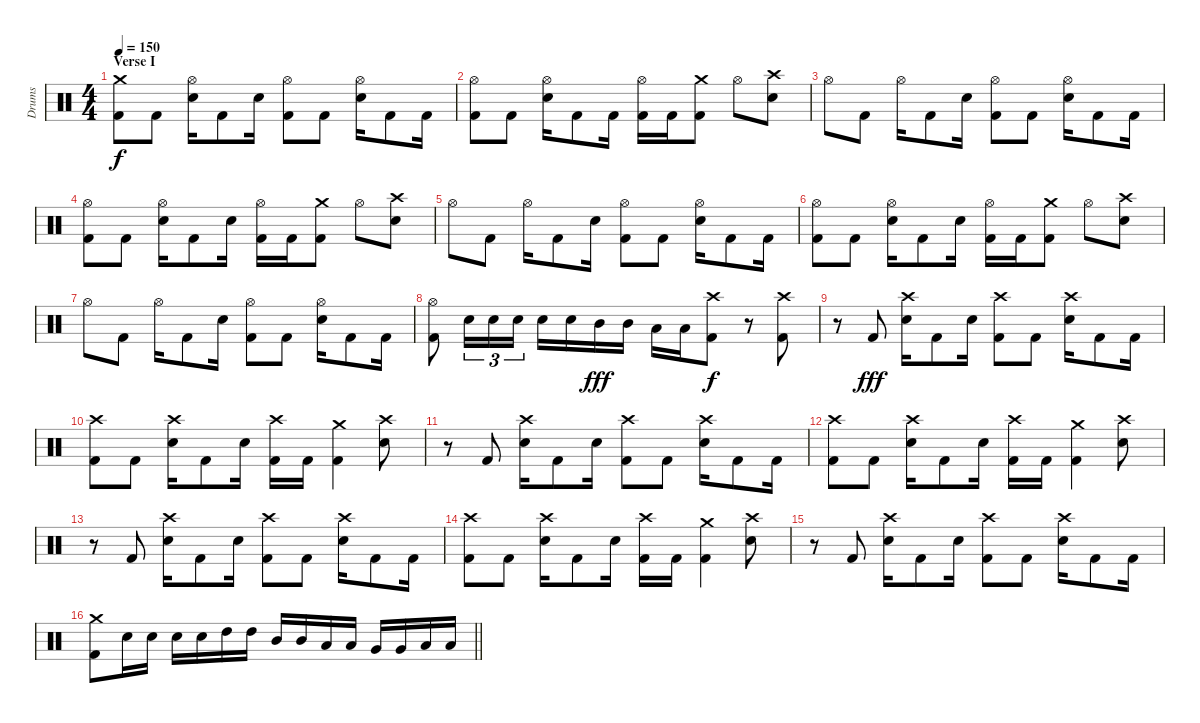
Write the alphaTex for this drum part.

\track ("Drums" "Drums") {instrument percussion}
\staff {score}
\articulation defaults
\ts (4 4)
\section ("" "Verse I")
\tempo 150
\clef neutral
\ks c
("Crash medium (hit)" "Kick (hit) 2").8{dy f} "Kick (hit) 2".8 ("Hi-Hat (open)" "Electric Snare (hit)").16 "Kick (hit) 2".8 "Electric Snare (hit)".16 ("Hi-Hat (open)" "Kick (hit) 2").8 "Kick (hit) 2".8 ("Hi-Hat (open)" "Electric Snare (hit)").16 "Kick (hit) 2".8 "Kick (hit) 2".16 |
("Hi-Hat (open)" "Kick (hit) 2").8 "Kick (hit) 2".8 ("Hi-Hat (open)" "Electric Snare (hit)").16 "Kick (hit) 2".8 "Kick (hit) 2".16 ("Hi-Hat (open)" "Kick (hit) 2").16 "Kick (hit) 2".16 ("Crash medium (hit)" "Kick (hit) 2").8 "Hi-Hat (open)".8 ("Crash high (hit)" "Electric Snare (hit)").8 |
"Hi-Hat (open)".8 "Kick (hit) 2".8 "Hi-Hat (open)".16 "Kick (hit) 2".8 "Electric Snare (hit)".16 ("Hi-Hat (open)" "Kick (hit) 2").8 "Kick (hit) 2".8 ("Hi-Hat (open)" "Electric Snare (hit)").16 "Kick (hit) 2".8 "Kick (hit) 2".16 |
("Hi-Hat (open)" "Kick (hit) 2").8 "Kick (hit) 2".8 ("Hi-Hat (open)" "Electric Snare (hit)").16 "Kick (hit) 2".8 "Electric Snare (hit)".16 ("Hi-Hat (open)" "Kick (hit) 2").16 "Kick (hit) 2".16 ("Crash medium (hit)" "Kick (hit) 2").8 "Hi-Hat (open)".8 ("Crash high (hit)" "Electric Snare (hit)").8 |
"Hi-Hat (open)".8 "Kick (hit) 2".8 "Hi-Hat (open)".16 "Kick (hit) 2".8 "Electric Snare (hit)".16 ("Hi-Hat (open)" "Kick (hit) 2").8 "Kick (hit) 2".8 ("Hi-Hat (open)" "Electric Snare (hit)").16 "Kick (hit) 2".8 "Kick (hit) 2".16 |
("Hi-Hat (open)" "Kick (hit) 2").8 "Kick (hit) 2".8 ("Hi-Hat (open)" "Electric Snare (hit)").16 "Kick (hit) 2".8 "Electric Snare (hit)".16 ("Hi-Hat (open)" "Kick (hit) 2").16 "Kick (hit) 2".16 ("Crash medium (hit)" "Kick (hit) 2").8 "Hi-Hat (open)".8 ("Crash high (hit)" "Electric Snare (hit)").8 |
"Hi-Hat (open)".8 "Kick (hit) 2".8 "Hi-Hat (open)".16 "Kick (hit) 2".8 "Electric Snare (hit)".16 ("Hi-Hat (open)" "Kick (hit) 2").8 "Kick (hit) 2".8 ("Hi-Hat (open)" "Electric Snare (hit)").16 "Kick (hit) 2".8 "Kick (hit) 2".16 |
("Hi-Hat (open)" "Kick (hit) 2").8 "Electric Snare (hit)".16{tu (3 2)} "Electric Snare (hit)".16{tu (3 2)} "Electric Snare (hit)".16{tu (3 2)} "Electric Snare (hit)".16 "Electric Snare (hit)".16 "Mid Tom (hit)".16{dy fff} "Mid Tom (hit)".16 "Low Tom (hit)".16 "Low Tom (hit)".16 ("Crash high (hit)" "Kick (hit) 2").8{dy f} r.8 ("Crash high (hit)" "Kick (hit) 2").8 |
r.8 "Kick (hit) 2".8{dy fff} ("Crash high (hit)" "Electric Snare (hit)").16 "Kick (hit) 2".8 "Electric Snare (hit)".16 ("Crash high (hit)" "Kick (hit) 2").8 "Kick (hit) 2".8 ("Crash high (hit)" "Electric Snare (hit)").16 "Kick (hit) 2".8 "Kick (hit) 2".16 |
("Crash high (hit)" "Kick (hit) 2").8 "Kick (hit) 2".8 ("Crash high (hit)" "Electric Snare (hit)").16 "Kick (hit) 2".8 "Electric Snare (hit)".16 ("Crash high (hit)" "Kick (hit) 2").16 "Kick (hit) 2".16 ("Crash medium (hit)" "Kick (hit) 2").4 ("Crash high (hit)" "Electric Snare (hit)").8 |
r.8 "Kick (hit) 2".8 ("Crash high (hit)" "Electric Snare (hit)").16 "Kick (hit) 2".8 "Electric Snare (hit)".16 ("Crash high (hit)" "Kick (hit) 2").8 "Kick (hit) 2".8 ("Crash high (hit)" "Electric Snare (hit)").16 "Kick (hit) 2".8 "Kick (hit) 2".16 |
("Crash high (hit)" "Kick (hit) 2").8 "Kick (hit) 2".8 ("Crash high (hit)" "Electric Snare (hit)").16 "Kick (hit) 2".8 "Electric Snare (hit)".16 ("Crash high (hit)" "Kick (hit) 2").16 "Kick (hit) 2".16 ("Crash medium (hit)" "Kick (hit) 2").4 ("Crash high (hit)" "Electric Snare (hit)").8 |
r.8 "Kick (hit) 2".8 ("Crash high (hit)" "Electric Snare (hit)").16 "Kick (hit) 2".8 "Electric Snare (hit)".16 ("Crash high (hit)" "Kick (hit) 2").8 "Kick (hit) 2".8 ("Crash high (hit)" "Electric Snare (hit)").16 "Kick (hit) 2".8 "Kick (hit) 2".16 |
("Crash high (hit)" "Kick (hit) 2").8 "Kick (hit) 2".8 ("Crash high (hit)" "Electric Snare (hit)").16 "Kick (hit) 2".8 "Electric Snare (hit)".16 ("Crash high (hit)" "Kick (hit) 2").16 "Kick (hit) 2".16 ("Crash medium (hit)" "Kick (hit) 2").4 ("Crash high (hit)" "Electric Snare (hit)").8 |
r.8 "Kick (hit) 2".8 ("Crash high (hit)" "Electric Snare (hit)").16 "Kick (hit) 2".8 "Electric Snare (hit)".16 ("Crash high (hit)" "Kick (hit) 2").8 "Kick (hit) 2".8 ("Crash high (hit)" "Electric Snare (hit)").16 "Kick (hit) 2".8 "Kick (hit) 2".16 |
\barLineRight lightlight
("Crash medium (hit)" "Kick (hit) 2").8 "Electric Snare (hit)".16 "Electric Snare (hit)".16 "Electric Snare (hit)".16 "Electric Snare (hit)".16 "High Tom (hit)".16 "High Tom (hit)".16 "Mid Tom (hit)".16 "Mid Tom (hit)".16 "Low Tom (hit)".16 "Low Tom (hit)".16 "Very Low Tom (hit)".16 "Very Low Tom (hit)".16 "Low Floor Tom (hit)".16 "Low Floor Tom (hit)".16
